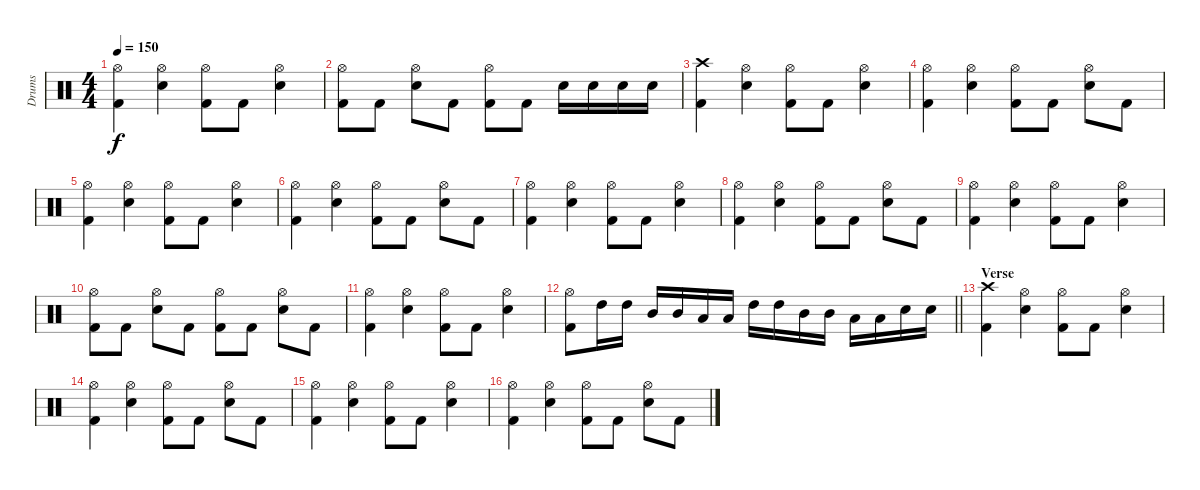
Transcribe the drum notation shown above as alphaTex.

\track ("Drums" "Drums") {instrument percussion}
\staff {score}
\articulation defaults
\ts (4 4)
\tempo 150
\clef neutral
\ks c
("Hi-Hat (open)" "Kick (hit) 2").4{dy f} ("Hi-Hat (open)" "Electric Snare (hit)").4 ("Hi-Hat (open)" "Kick (hit) 2").8 "Kick (hit) 2".8 ("Hi-Hat (open)" "Electric Snare (hit)").4 |
("Hi-Hat (open)" "Kick (hit) 2").8 "Kick (hit) 2".8 ("Hi-Hat (open)" "Electric Snare (hit)").8 "Kick (hit) 2".8 ("Hi-Hat (open)" "Kick (hit) 2").8 "Kick (hit) 2".8 "Electric Snare (hit)".16 "Electric Snare (hit)".16 "Electric Snare (hit)".16 "Electric Snare (hit)".16 |
("Crash high (hit)" "Kick (hit) 2").4 ("Hi-Hat (open)" "Electric Snare (hit)").4 ("Hi-Hat (open)" "Kick (hit) 2").8 "Kick (hit) 2".8 ("Hi-Hat (open)" "Electric Snare (hit)").4 |
("Hi-Hat (open)" "Kick (hit) 2").4 ("Hi-Hat (open)" "Electric Snare (hit)").4 ("Hi-Hat (open)" "Kick (hit) 2").8 "Kick (hit) 2".8 ("Hi-Hat (open)" "Electric Snare (hit)").8 "Kick (hit) 2".8 |
("Hi-Hat (open)" "Kick (hit) 2").4 ("Hi-Hat (open)" "Electric Snare (hit)").4 ("Hi-Hat (open)" "Kick (hit) 2").8 "Kick (hit) 2".8 ("Hi-Hat (open)" "Electric Snare (hit)").4 |
("Hi-Hat (open)" "Kick (hit) 2").4 ("Hi-Hat (open)" "Electric Snare (hit)").4 ("Hi-Hat (open)" "Kick (hit) 2").8 "Kick (hit) 2".8 ("Hi-Hat (open)" "Electric Snare (hit)").8 "Kick (hit) 2".8 |
("Hi-Hat (open)" "Kick (hit) 2").4 ("Hi-Hat (open)" "Electric Snare (hit)").4 ("Hi-Hat (open)" "Kick (hit) 2").8 "Kick (hit) 2".8 ("Hi-Hat (open)" "Electric Snare (hit)").4 |
("Hi-Hat (open)" "Kick (hit) 2").4 ("Hi-Hat (open)" "Electric Snare (hit)").4 ("Hi-Hat (open)" "Kick (hit) 2").8 "Kick (hit) 2".8 ("Hi-Hat (open)" "Electric Snare (hit)").8 "Kick (hit) 2".8 |
("Hi-Hat (open)" "Kick (hit) 2").4 ("Hi-Hat (open)" "Electric Snare (hit)").4 ("Hi-Hat (open)" "Kick (hit) 2").8 "Kick (hit) 2".8 ("Hi-Hat (open)" "Electric Snare (hit)").4 |
("Hi-Hat (open)" "Kick (hit) 2").8 "Kick (hit) 2".8 ("Hi-Hat (open)" "Electric Snare (hit)").8 "Kick (hit) 2".8 ("Hi-Hat (open)" "Kick (hit) 2").8 "Kick (hit) 2".8 ("Hi-Hat (open)" "Electric Snare (hit)").8 "Kick (hit) 2".8 |
("Hi-Hat (open)" "Kick (hit) 2").4 ("Hi-Hat (open)" "Electric Snare (hit)").4 ("Hi-Hat (open)" "Kick (hit) 2").8 "Kick (hit) 2".8 ("Hi-Hat (open)" "Electric Snare (hit)").4 |
\barLineRight lightlight
("Hi-Hat (open)" "Kick (hit) 2").8 "High Tom (hit)".16 "High Tom (hit)".16 "Mid Tom (hit)".16 "Mid Tom (hit)".16 "Low Tom (hit)".16 "Low Tom (hit)".16 "High Tom (hit)".16 "High Tom (hit)".16 "Mid Tom (hit)".16 "Mid Tom (hit)".16 "Low Tom (hit)".16 "Low Tom (hit)".16 "Electric Snare (hit)".16 "Electric Snare (hit)".16 |
\section ("" "Verse")
("Crash high (hit)" "Kick (hit) 2").4 ("Hi-Hat (open)" "Electric Snare (hit)").4 ("Hi-Hat (open)" "Kick (hit) 2").8 "Kick (hit) 2".8 ("Hi-Hat (open)" "Electric Snare (hit)").4 |
("Hi-Hat (open)" "Kick (hit) 2").4 ("Hi-Hat (open)" "Electric Snare (hit)").4 ("Hi-Hat (open)" "Kick (hit) 2").8 "Kick (hit) 2".8 ("Hi-Hat (open)" "Electric Snare (hit)").8 "Kick (hit) 2".8 |
("Hi-Hat (open)" "Kick (hit) 2").4 ("Hi-Hat (open)" "Electric Snare (hit)").4 ("Hi-Hat (open)" "Kick (hit) 2").8 "Kick (hit) 2".8 ("Hi-Hat (open)" "Electric Snare (hit)").4 |
("Hi-Hat (open)" "Kick (hit) 2").4 ("Hi-Hat (open)" "Electric Snare (hit)").4 ("Hi-Hat (open)" "Kick (hit) 2").8 "Kick (hit) 2".8 ("Hi-Hat (open)" "Electric Snare (hit)").8 "Kick (hit) 2".8
